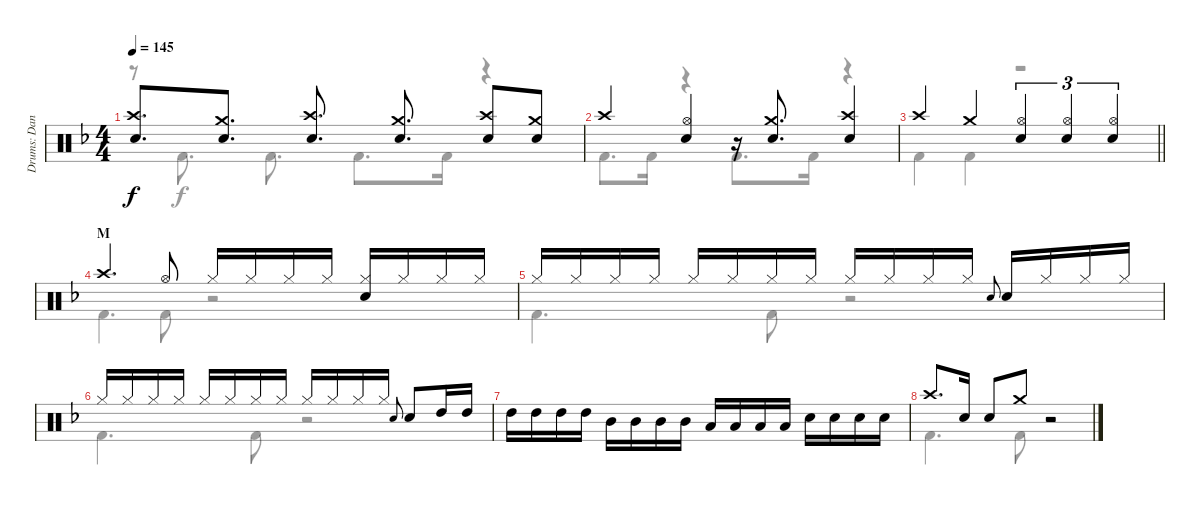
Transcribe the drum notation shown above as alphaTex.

\track ("Drums: Dana" "Drums: Dan") {instrument percussion}
\staff {score}
\articulation defaults
\voice
\ts (4 4)
\tempo 145
\clef neutral
\ks f
("Crash high (hit)" "Snare (hit) 2").8{d dy f} ("Crash medium (hit)" "Snare (hit) 2").8{d} ("Crash high (hit)" "Snare (hit) 2").8{d} ("Crash medium (hit)" "Snare (hit) 2").8{d} ("Crash high (hit)" "Snare (hit) 2").8 ("Crash medium (hit)" "Snare (hit) 2").8 |
"Crash high (hit)".4 ("Hi-Hat (open)" "Snare (hit) 2").4 r.16 ("Crash medium (hit)" "Snare (hit) 2").8{d} ("Crash high (hit)" "Snare (hit) 2").4 |
\barLineRight lightlight "Crash high (hit)".4 "Crash medium (hit)".4
("Hi-Hat (open)" "Snare (hit) 2").4{tu (3 2)} ("Hi-Hat (open)" "Snare (hit) 2").4{tu (3 2)} ("Hi-Hat (open)" "Snare (hit) 2").4{tu (3 2)} |
\section ("" "M")
"Crash high (hit)".4{d} "Hi-Hat (open)".8 "Hi-Hat (closed)".16 "Hi-Hat (closed)".16 "Hi-Hat (closed)".16 "Hi-Hat (closed)".16 ("Hi-Hat (closed)" "Snare (hit) 2").16 "Hi-Hat (closed)".16 "Hi-Hat (closed)".16 "Hi-Hat (closed)".16 |
"Hi-Hat (closed)".16 "Hi-Hat (closed)".16 "Hi-Hat (closed)".16 "Hi-Hat (closed)".16 "Hi-Hat (closed)".16 "Hi-Hat (closed)".16 "Hi-Hat (closed)".16 "Hi-Hat (closed)".16 "Hi-Hat (closed)".16 "Hi-Hat (closed)".16 "Hi-Hat (closed)".16 "Hi-Hat (closed)".16 "Electric Snare (hit)".8{gr onbeat} "Snare (hit) 2".16 "Hi-Hat (closed)".16 "Hi-Hat (closed)".16 "Hi-Hat (closed)".16 |
"Hi-Hat (closed)".16 "Hi-Hat (closed)".16 "Hi-Hat (closed)".16 "Hi-Hat (closed)".16 "Hi-Hat (closed)".16 "Hi-Hat (closed)".16 "Hi-Hat (closed)".16 "Hi-Hat (closed)".16 "Hi-Hat (closed)".16 "Hi-Hat (closed)".16 "Hi-Hat (closed)".16 "Hi-Hat (closed)".16 "Electric Snare (hit)".8{gr onbeat} "Snare (hit) 2".8 "High Tom (hit)".16 "High Tom (hit)".16 |
"High Tom (hit)".16 "High Tom (hit)".16 "High Tom (hit)".16 "High Tom (hit)".16 "Mid Tom (hit)".16 "Mid Tom (hit)".16 "Mid Tom (hit)".16 "Mid Tom (hit)".16 "Low Tom (hit)".16 "Low Tom (hit)".16 "Low Tom (hit)".16 "Low Tom (hit)".16 "Snare (hit) 2".16 "Snare (hit) 2".16 "Snare (hit) 2".16 "Snare (hit) 2".16 |
"Crash high (hit)".8{d} "Snare (hit) 2".16 "Snare (hit) 2".8 "Crash medium (hit)".8 r.2
\voice
\clef neutral
\ottava regular
\simile none
\ks f
r.8{dy f} "Kick (hit) 2".8{d} "Kick (hit) 2".8{d} "Kick (hit) 2".8{d} "Kick (hit) 2".16 r.4 |
"Kick (hit) 2".8{d} "Kick (hit) 2".16 r.4 "Kick (hit) 2".8{d} "Kick (hit) 2".16 r.4 |
\barLineRight lightlight "Kick (hit) 2".4 "Kick (hit) 2".4
r.2 |
"Kick (hit) 2".4{d} "Kick (hit) 2".8 r.2 |
"Kick (hit) 2".4{d} "Kick (hit) 2".8 r.2 |
"Kick (hit) 2".4{d} "Kick (hit) 2".8 r.2 |
|
"Kick (hit) 2".4{d} "Kick (hit) 2".8 r.2
